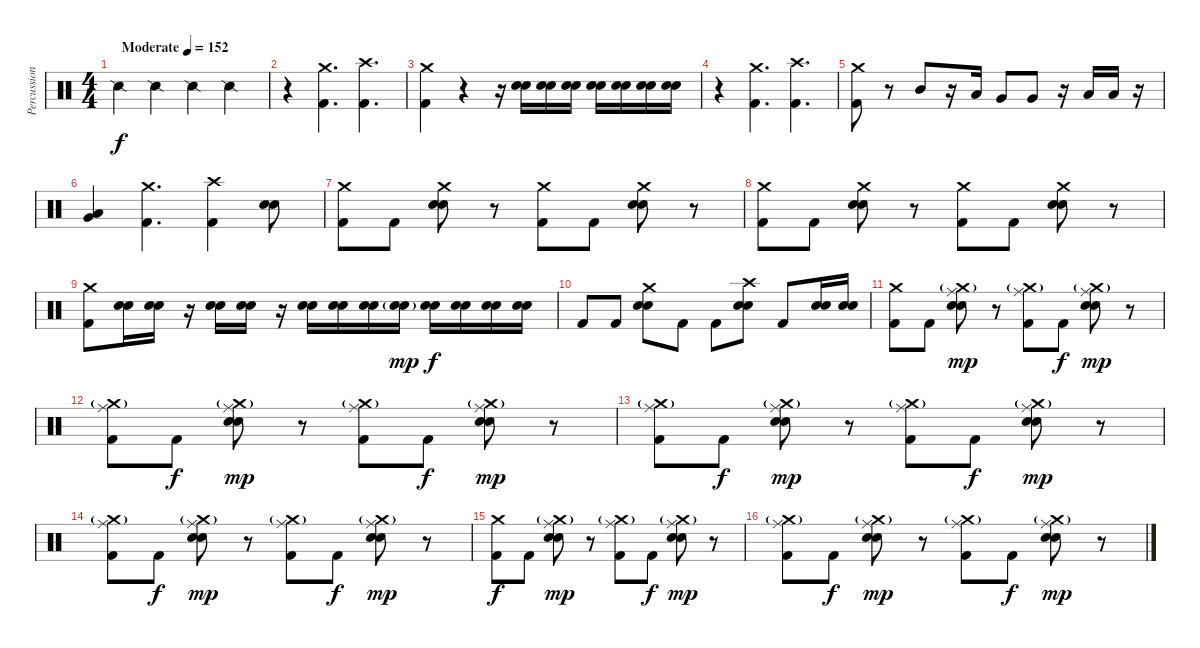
\track ("Percussion" "Percussion") {instrument percussion}
\staff {score}
\articulation defaults
\ts (4 4)
\tempo (152 "Moderate")
\clef neutral
\ks c "Snare (side stick) 2".4{dy f} "Snare (side stick) 2".4 "Snare (side stick) 2".4 "Snare (side stick) 2".4
|
r.4 ("Crash medium (hit)" "Kick (hit) 2").4{d} ("Crash high (hit)" "Kick (hit) 2").4{d} |
("Crash medium (hit)" "Kick (hit) 2").4 r.4 r.16 ("Snare (hit) 2" "Electric Snare (hit)").16 ("Snare (hit) 2" "Electric Snare (hit)").16 ("Snare (hit) 2" "Electric Snare (hit)").16 ("Snare (hit) 2" "Electric Snare (hit)").16 ("Snare (hit) 2" "Electric Snare (hit)").16 ("Snare (hit) 2" "Electric Snare (hit)").16 ("Snare (hit) 2" "Electric Snare (hit)").16 |
r.4 ("Crash medium (hit)" "Kick (hit) 2").4{d} ("Crash high (hit)" "Kick (hit) 2").4{d} |
("Crash medium (hit)" "Kick (hit) 2").8 r.8 "Mid Tom (hit)".8 r.16 "Low Tom (hit)".16 "Very Low Tom (hit)".8 "Very Low Tom (hit)".8 r.16 "Low Floor Tom (hit)".16 "Low Floor Tom (hit)".16 r.16 |
("Very Low Tom (hit)" "Low Floor Tom (hit)").4 ("Crash medium (hit)" "Kick (hit) 2").4{d} ("Crash high (hit)" "Kick (hit) 2").4 ("Snare (hit) 2" "Electric Snare (hit)").8 |
("Crash medium (hit)" "Kick (hit) 2").8 "Kick (hit) 2".8 ("Crash medium (hit)" "Snare (hit) 2" "Electric Snare (hit)").8 r.8 ("Crash medium (hit)" "Kick (hit) 2").8 "Kick (hit) 2".8 ("Crash medium (hit)" "Snare (hit) 2" "Electric Snare (hit)").8 r.8 |
("Crash medium (hit)" "Kick (hit) 2").8 "Kick (hit) 2".8 ("Crash medium (hit)" "Snare (hit) 2" "Electric Snare (hit)").8 r.8 ("Crash medium (hit)" "Kick (hit) 2").8 "Kick (hit) 2".8 ("Crash medium (hit)" "Snare (hit) 2" "Electric Snare (hit)").8 r.8 |
("Crash medium (hit)" "Kick (hit) 2").8 ("Snare (hit) 2" "Electric Snare (hit)").16 ("Snare (hit) 2" "Electric Snare (hit)").16 r.16 ("Snare (hit) 2" "Electric Snare (hit)").16 ("Snare (hit) 2" "Electric Snare (hit)").16 r.16 ("Snare (hit) 2" "Electric Snare (hit)").16 ("Snare (hit) 2" "Electric Snare (hit)").16 ("Snare (hit) 2" "Electric Snare (hit)").16 ("Snare (hit) 2"{g} "Electric Snare (hit)"{g}).16{dy mp} ("Snare (hit) 2" "Electric Snare (hit)").16{dy f} ("Snare (hit) 2" "Electric Snare (hit)").16 ("Snare (hit) 2" "Electric Snare (hit)").16 ("Snare (hit) 2" "Electric Snare (hit)").16 |
"Kick (hit) 2".8 "Kick (hit) 2".8 ("Crash medium (hit)" "Snare (hit) 2" "Electric Snare (hit)").8 "Kick (hit) 2".8 "Kick (hit) 2".8 ("Crash high (hit)" "Snare (hit) 2" "Electric Snare (hit)").8 "Kick (hit) 2".8 ("Snare (hit) 2" "Electric Snare (hit)").16 ("Snare (hit) 2" "Electric Snare (hit)").16 |
("Crash medium (hit)" "Kick (hit) 2").8 "Kick (hit) 2".8 ("Crash medium (hit)"{g} "Ride (middle)" "Snare (hit) 2" "Electric Snare (hit)").8{dy mp} r.8 ("Crash medium (hit)"{g} "Ride (middle)" "Kick (hit) 2").8 "Kick (hit) 2".8{dy f} ("Crash medium (hit)"{g} "Ride (middle)" "Snare (hit) 2" "Electric Snare (hit)").8{dy mp} r.8 |
("Crash medium (hit)"{g} "Ride (middle)" "Kick (hit) 2").8 "Kick (hit) 2".8{dy f} ("Crash medium (hit)"{g} "Ride (middle)" "Snare (hit) 2" "Electric Snare (hit)").8{dy mp} r.8 ("Crash medium (hit)"{g} "Ride (middle)" "Kick (hit) 2").8 "Kick (hit) 2".8{dy f} ("Crash medium (hit)"{g} "Ride (middle)" "Snare (hit) 2" "Electric Snare (hit)").8{dy mp} r.8 |
("Crash medium (hit)"{g} "Ride (middle)" "Kick (hit) 2").8 "Kick (hit) 2".8{dy f} ("Crash medium (hit)"{g} "Ride (middle)" "Snare (hit) 2" "Electric Snare (hit)").8{dy mp} r.8 ("Crash medium (hit)"{g} "Ride (middle)" "Kick (hit) 2").8 "Kick (hit) 2".8{dy f} ("Crash medium (hit)"{g} "Ride (middle)" "Snare (hit) 2" "Electric Snare (hit)").8{dy mp} r.8 |
("Crash medium (hit)"{g} "Ride (middle)" "Kick (hit) 2").8 "Kick (hit) 2".8{dy f} ("Crash medium (hit)"{g} "Ride (middle)" "Snare (hit) 2" "Electric Snare (hit)").8{dy mp} r.8 ("Crash medium (hit)"{g} "Ride (middle)" "Kick (hit) 2").8 "Kick (hit) 2".8{dy f} ("Crash medium (hit)"{g} "Ride (middle)" "Snare (hit) 2" "Electric Snare (hit)").8{dy mp} r.8 |
("Crash medium (hit)" "Kick (hit) 2").8{dy f} "Kick (hit) 2".8 ("Crash medium (hit)"{g} "Ride (middle)" "Snare (hit) 2" "Electric Snare (hit)").8{dy mp} r.8 ("Crash medium (hit)"{g} "Ride (middle)" "Kick (hit) 2").8 "Kick (hit) 2".8{dy f} ("Crash medium (hit)"{g} "Ride (middle)" "Snare (hit) 2" "Electric Snare (hit)").8{dy mp} r.8 |
("Crash medium (hit)"{g} "Ride (middle)" "Kick (hit) 2").8 "Kick (hit) 2".8{dy f} ("Crash medium (hit)"{g} "Ride (middle)" "Snare (hit) 2" "Electric Snare (hit)").8{dy mp} r.8 ("Crash medium (hit)"{g} "Ride (middle)" "Kick (hit) 2").8 "Kick (hit) 2".8{dy f} ("Crash medium (hit)"{g} "Ride (middle)" "Snare (hit) 2" "Electric Snare (hit)").8{dy mp} r.8
